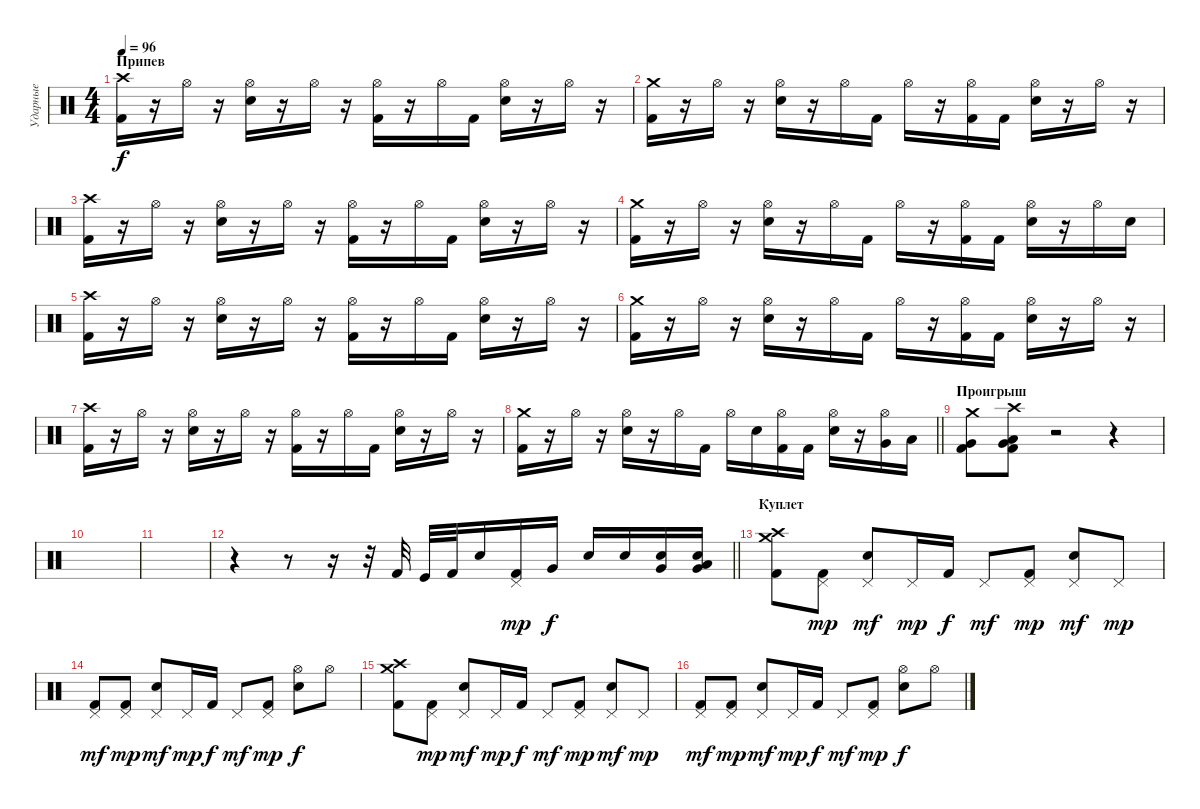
\track ("Ударные" "Ударные") {instrument percussion}
\staff {score}
\articulation defaults
\ts (4 4)
\section ("" "Припев")
\tempo 96
\clef neutral
\ks c
("Crash high (hit)" "Kick (hit) 2").16{dy f} r.16 "Hi-Hat (open)".16 r.16 ("Hi-Hat (open)" "Electric Snare (hit)").16 r.16 "Hi-Hat (open)".16 r.16 ("Hi-Hat (open)" "Kick (hit) 2").16 r.16 "Hi-Hat (open)".16 "Kick (hit) 2".16 ("Hi-Hat (open)" "Electric Snare (hit)").16 r.16 "Hi-Hat (open)".16 r.16 |
("Crash medium (hit)" "Kick (hit) 2").16 r.16 "Hi-Hat (open)".16 r.16 ("Hi-Hat (open)" "Electric Snare (hit)").16 r.16 "Hi-Hat (open)".16 "Kick (hit) 2".16 "Hi-Hat (open)".16 r.16 ("Hi-Hat (open)" "Kick (hit) 2").16 "Kick (hit) 2".16 ("Hi-Hat (open)" "Electric Snare (hit)").16 r.16 "Hi-Hat (open)".16 r.16 |
("Crash high (hit)" "Kick (hit) 2").16 r.16 "Hi-Hat (open)".16 r.16 ("Hi-Hat (open)" "Electric Snare (hit)").16 r.16 "Hi-Hat (open)".16 r.16 ("Hi-Hat (open)" "Kick (hit) 2").16 r.16 "Hi-Hat (open)".16 "Kick (hit) 2".16 ("Hi-Hat (open)" "Electric Snare (hit)").16 r.16 "Hi-Hat (open)".16 r.16 |
("Crash medium (hit)" "Kick (hit) 2").16 r.16 "Hi-Hat (open)".16 r.16 ("Hi-Hat (open)" "Electric Snare (hit)").16 r.16 "Hi-Hat (open)".16 "Kick (hit) 2".16 "Hi-Hat (open)".16 r.16 ("Hi-Hat (open)" "Kick (hit) 2").16 "Kick (hit) 2".16 ("Hi-Hat (open)" "Electric Snare (hit)").16 r.16 "Hi-Hat (open)".16 "Electric Snare (hit)".16 |
("Crash high (hit)" "Kick (hit) 2").16 r.16 "Hi-Hat (open)".16 r.16 ("Hi-Hat (open)" "Electric Snare (hit)").16 r.16 "Hi-Hat (open)".16 r.16 ("Hi-Hat (open)" "Kick (hit) 2").16 r.16 "Hi-Hat (open)".16 "Kick (hit) 2".16 ("Hi-Hat (open)" "Electric Snare (hit)").16 r.16 "Hi-Hat (open)".16 r.16 |
("Crash medium (hit)" "Kick (hit) 2").16 r.16 "Hi-Hat (open)".16 r.16 ("Hi-Hat (open)" "Electric Snare (hit)").16 r.16 "Hi-Hat (open)".16 "Kick (hit) 2".16 "Hi-Hat (open)".16 r.16 ("Hi-Hat (open)" "Kick (hit) 2").16 "Kick (hit) 2".16 ("Hi-Hat (open)" "Electric Snare (hit)").16 r.16 "Hi-Hat (open)".16 r.16 |
("Crash high (hit)" "Kick (hit) 2").16 r.16 "Hi-Hat (open)".16 r.16 ("Hi-Hat (open)" "Electric Snare (hit)").16 r.16 "Hi-Hat (open)".16 r.16 ("Hi-Hat (open)" "Kick (hit) 2").16 r.16 "Hi-Hat (open)".16 "Kick (hit) 2".16 ("Hi-Hat (open)" "Electric Snare (hit)").16 r.16 "Hi-Hat (open)".16 r.16 |
\barLineRight lightlight
("Crash medium (hit)" "Kick (hit) 2").16 r.16 "Hi-Hat (open)".16 r.16 ("Hi-Hat (open)" "Electric Snare (hit)").16 r.16 "Hi-Hat (open)".16 "Kick (hit) 2".16 "Hi-Hat (open)".16 "Electric Snare (hit)".16 ("Hi-Hat (open)" "Kick (hit) 2").16 "Kick (hit) 2".16 ("Hi-Hat (open)" "Electric Snare (hit)").16 r.16 ("Very Low Tom (hit)" "Hi-Hat (open)").16 "Low Tom (hit)".16 |
\section ("" "Проигрыш")
("Crash medium (hit)" "Very Low Tom (hit)" "Kick (hit) 2").8 ("Crash high (hit)" "Low Tom (hit)" "Very Low Tom (hit)" "Kick (hit) 2").8 r.2 r.4 |
|
|
\barLineRight lightlight
r.4 r.8 r.16 r.32 "Kick (hit) 2".32 "Kick (hit)".32 "Kick (hit) 2".32 "Electric Snare (hit)".16 ("Kick (hit) 2" "Pedal Hi-Hat (hit)").16{dy mp} "Very Low Tom (hit)".16{dy f} "Electric Snare (hit)".16 "Electric Snare (hit)".16 ("Very Low Tom (hit)" "Electric Snare (hit)").16 ("Low Tom (hit)" "Very Low Tom (hit)" "Electric Snare (hit)").16 |
\section ("" "Куплет")
("Crash high (hit)" "Crash medium (hit)" "Kick (hit) 2").8 ("Kick (hit) 2" "Pedal Hi-Hat (hit)").8{dy mp} ("Snare (hit) 2" "Pedal Hi-Hat (hit)").8{dy mf} "Pedal Hi-Hat (hit)".16{dy mp} "Kick (hit) 2".16{dy f} "Pedal Hi-Hat (hit)".8{dy mf} ("Kick (hit) 2" "Pedal Hi-Hat (hit)").8{dy mp} ("Snare (hit) 2" "Pedal Hi-Hat (hit)").8{dy mf} "Pedal Hi-Hat (hit)".8{dy mp} |
("Kick (hit) 2" "Pedal Hi-Hat (hit)").8{dy mf} ("Kick (hit) 2" "Pedal Hi-Hat (hit)").8{dy mp} ("Snare (hit) 2" "Pedal Hi-Hat (hit)").8{dy mf} "Pedal Hi-Hat (hit)".16{dy mp} "Kick (hit) 2".16{dy f} "Pedal Hi-Hat (hit)".8{dy mf} ("Kick (hit) 2" "Pedal Hi-Hat (hit)").8{dy mp} ("Snare (hit) 2" "Hi-Hat (open)").8{dy f} "Hi-Hat (open)".8 |
("Crash high (hit)" "Crash medium (hit)" "Kick (hit) 2").8 ("Kick (hit) 2" "Pedal Hi-Hat (hit)").8{dy mp} ("Snare (hit) 2" "Pedal Hi-Hat (hit)").8{dy mf} "Pedal Hi-Hat (hit)".16{dy mp} "Kick (hit) 2".16{dy f} "Pedal Hi-Hat (hit)".8{dy mf} ("Kick (hit) 2" "Pedal Hi-Hat (hit)").8{dy mp} ("Snare (hit) 2" "Pedal Hi-Hat (hit)").8{dy mf} "Pedal Hi-Hat (hit)".8{dy mp} |
("Kick (hit) 2" "Pedal Hi-Hat (hit)").8{dy mf} ("Kick (hit) 2" "Pedal Hi-Hat (hit)").8{dy mp} ("Snare (hit) 2" "Pedal Hi-Hat (hit)").8{dy mf} "Pedal Hi-Hat (hit)".16{dy mp} "Kick (hit) 2".16{dy f} "Pedal Hi-Hat (hit)".8{dy mf} ("Kick (hit) 2" "Pedal Hi-Hat (hit)").8{dy mp} ("Snare (hit) 2" "Hi-Hat (open)").8{dy f} "Hi-Hat (open)".8
